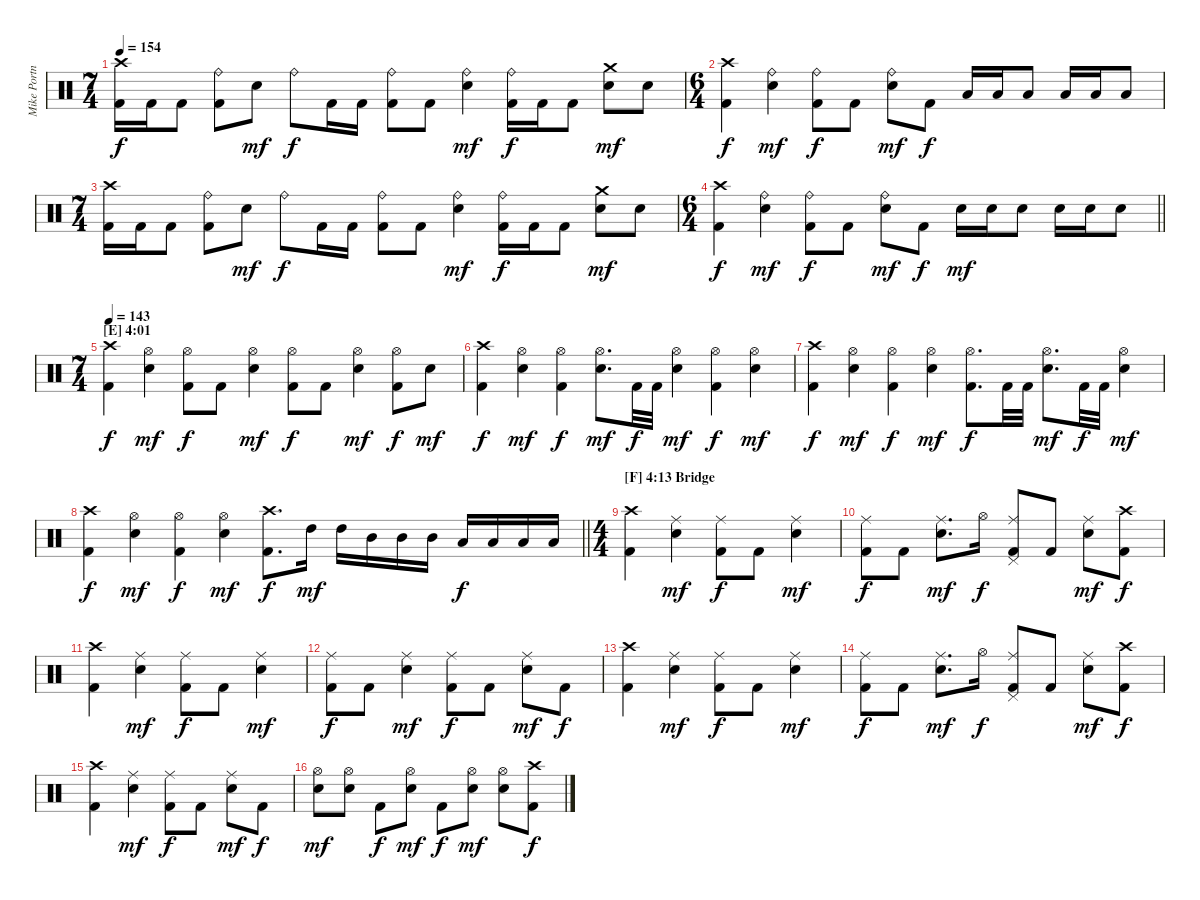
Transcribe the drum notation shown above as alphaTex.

\track ("Mike Portnoy - Drum" "Mike Portn") {instrument percussion}
\staff {score}
\articulation defaults
\ts (7 4)
\tempo 154
\clef neutral
\ks c
("Crash high (hit)" "Kick (hit) 2").16{dy f} "Kick (hit) 2".16 "Kick (hit) 2".8 ("Ride (bell)" "Kick (hit) 2").8 "Electric Snare (hit)".8{dy mf} "Ride (bell)".8{dy f} "Kick (hit) 2".16 "Kick (hit) 2".16 ("Ride (bell)" "Kick (hit) 2").8 "Kick (hit) 2".8 ("Ride (bell)" "Electric Snare (hit)").4{dy mf} ("Ride (bell)" "Kick (hit) 2").16{dy f} "Kick (hit) 2".16 "Kick (hit) 2".8 ("Crash medium (hit)" "Electric Snare (hit)").8{dy mf} "Electric Snare (hit)".8 |
\ts (6 4)
("Crash high (hit)" "Kick (hit) 2").4{dy f} ("Ride (bell)" "Electric Snare (hit)").4{dy mf} ("Ride (bell)" "Kick (hit) 2").8{dy f} "Kick (hit) 2".8 ("Ride (bell)" "Electric Snare (hit)").8{dy mf} "Kick (hit) 2".8{dy f} "Low Tom (hit)".16 "Low Tom (hit)".16 "Low Tom (hit)".8 "Low Tom (hit)".16 "Low Tom (hit)".16 "Low Tom (hit)".8 |
\ts (7 4)
("Crash high (hit)" "Kick (hit) 2").16 "Kick (hit) 2".16 "Kick (hit) 2".8 ("Ride (bell)" "Kick (hit) 2").8 "Electric Snare (hit)".8{dy mf} "Ride (bell)".8{dy f} "Kick (hit) 2".16 "Kick (hit) 2".16 ("Ride (bell)" "Kick (hit) 2").8 "Kick (hit) 2".8 ("Ride (bell)" "Electric Snare (hit)").4{dy mf} ("Ride (bell)" "Kick (hit) 2").16{dy f} "Kick (hit) 2".16 "Kick (hit) 2".8 ("Crash medium (hit)" "Electric Snare (hit)").8{dy mf} "Electric Snare (hit)".8 |
\ts (6 4)
\barLineRight lightlight
("Crash high (hit)" "Kick (hit) 2").4{dy f} ("Ride (bell)" "Electric Snare (hit)").4{dy mf} ("Ride (bell)" "Kick (hit) 2").8{dy f} "Kick (hit) 2".8 ("Ride (bell)" "Electric Snare (hit)").8{dy mf} "Kick (hit) 2".8{dy f} "Electric Snare (hit)".16{dy mf} "Electric Snare (hit)".16 "Electric Snare (hit)".8 "Electric Snare (hit)".16 "Electric Snare (hit)".16 "Electric Snare (hit)".8 |
\ts (7 4)
\section ("" "[E] 4:01")
\tempo 144
\tempo 143
("Crash high (hit)" "Kick (hit) 2").4{dy f} ("Hi-Hat (open)" "Electric Snare (hit)").4{dy mf} ("Hi-Hat (open)" "Kick (hit) 2").8{dy f} "Kick (hit) 2".8 ("Hi-Hat (open)" "Electric Snare (hit)").4{dy mf} ("Hi-Hat (open)" "Kick (hit) 2").8{dy f} "Kick (hit) 2".8 ("Hi-Hat (open)" "Electric Snare (hit)").4{dy mf} ("Hi-Hat (open)" "Kick (hit) 2").8{dy f} "Electric Snare (hit)".8{dy mf} |
("Crash high (hit)" "Kick (hit) 2").4{dy f} ("Hi-Hat (open)" "Electric Snare (hit)").4{dy mf} ("Hi-Hat (open)" "Kick (hit) 2").4{dy f} ("Hi-Hat (open)" "Electric Snare (hit)").8{d dy mf} "Kick (hit) 2".32{dy f} "Kick (hit) 2".32 ("Hi-Hat (open)" "Electric Snare (hit)").4{dy mf} ("Hi-Hat (open)" "Kick (hit) 2").4{dy f} ("Hi-Hat (open)" "Electric Snare (hit)").4{dy mf} |
("Crash high (hit)" "Kick (hit) 2").4{dy f} ("Hi-Hat (open)" "Electric Snare (hit)").4{dy mf} ("Hi-Hat (open)" "Kick (hit) 2").4{dy f} ("Hi-Hat (open)" "Electric Snare (hit)").4{dy mf} ("Hi-Hat (open)" "Kick (hit) 2").8{d dy f} "Kick (hit) 2".32 "Kick (hit) 2".32 ("Hi-Hat (open)" "Electric Snare (hit)").8{d dy mf} "Kick (hit) 2".32{dy f} "Kick (hit) 2".32 ("Hi-Hat (open)" "Electric Snare (hit)").4{dy mf} |
\barLineRight lightlight
("Crash high (hit)" "Kick (hit) 2").4{dy f} ("Hi-Hat (open)" "Electric Snare (hit)").4{dy mf} ("Hi-Hat (open)" "Kick (hit) 2").4{dy f} ("Hi-Hat (open)" "Electric Snare (hit)").4{dy mf} ("Crash high (hit)" "Kick (hit) 2").8{d dy f} "High Tom (hit)".16{dy mf} "High Tom (hit)".16 "Mid Tom (hit)".16 "Mid Tom (hit)".16 "Mid Tom (hit)".16 "Low Tom (hit)".16{dy f} "Low Tom (hit)".16 "Low Tom (hit)".16 "Low Tom (hit)".16 |
\ts (4 4)
\section ("" "[F] 4:13 Bridge")
("Crash high (hit)" "Kick (hit) 2").4 ("Ride (middle)" "Electric Snare (hit)").4{dy mf} ("Ride (middle)" "Kick (hit) 2").8{dy f} "Kick (hit) 2".8 ("Ride (middle)" "Electric Snare (hit)").4{dy mf} |
("Ride (middle)" "Kick (hit) 2").8{dy f} "Kick (hit) 2".8 ("Ride (middle)" "Electric Snare (hit)").8{d dy mf} "Hi-Hat (open)".16{dy f} ("Ride (middle)" "Pedal Hi-Hat (hit)" "Kick (hit) 2").8 "Kick (hit) 2".8 ("Ride (middle)" "Electric Snare (hit)").8{dy mf} ("Crash high (hit)" "Kick (hit) 2").8{dy f} |
("Crash high (hit)" "Kick (hit) 2").4 ("Ride (middle)" "Electric Snare (hit)").4{dy mf} ("Ride (middle)" "Kick (hit) 2").8{dy f} "Kick (hit) 2".8 ("Ride (middle)" "Electric Snare (hit)").4{dy mf} |
("Ride (middle)" "Kick (hit) 2").8{dy f} "Kick (hit) 2".8 ("Ride (middle)" "Electric Snare (hit)").4{dy mf} ("Ride (middle)" "Kick (hit) 2").8{dy f} "Kick (hit) 2".8 ("Ride (middle)" "Electric Snare (hit)").8{dy mf} "Kick (hit) 2".8{dy f} |
("Crash high (hit)" "Kick (hit) 2").4 ("Ride (middle)" "Electric Snare (hit)").4{dy mf} ("Ride (middle)" "Kick (hit) 2").8{dy f} "Kick (hit) 2".8 ("Ride (middle)" "Electric Snare (hit)").4{dy mf} |
("Ride (middle)" "Kick (hit) 2").8{dy f} "Kick (hit) 2".8 ("Ride (middle)" "Electric Snare (hit)").8{d dy mf} "Hi-Hat (open)".16{dy f} ("Ride (middle)" "Pedal Hi-Hat (hit)" "Kick (hit) 2").8 "Kick (hit) 2".8 ("Ride (middle)" "Electric Snare (hit)").8{dy mf} ("Crash high (hit)" "Kick (hit) 2").8{dy f} |
("Crash high (hit)" "Kick (hit) 2").4 ("Ride (middle)" "Electric Snare (hit)").4{dy mf} ("Ride (middle)" "Kick (hit) 2").8{dy f} "Kick (hit) 2".8 ("Ride (middle)" "Electric Snare (hit)").8{dy mf} "Kick (hit) 2".8{dy f} |
("Hi-Hat (open)" "Electric Snare (hit)").8{dy mf} ("Hi-Hat (open)" "Electric Snare (hit)").8 "Kick (hit) 2".8{dy f} ("Hi-Hat (open)" "Electric Snare (hit)").8{dy mf} "Kick (hit) 2".8{dy f} ("Hi-Hat (open)" "Electric Snare (hit)").8{dy mf} ("Hi-Hat (open)" "Electric Snare (hit)").8 ("Crash high (hit)" "Kick (hit) 2").8{dy f}
